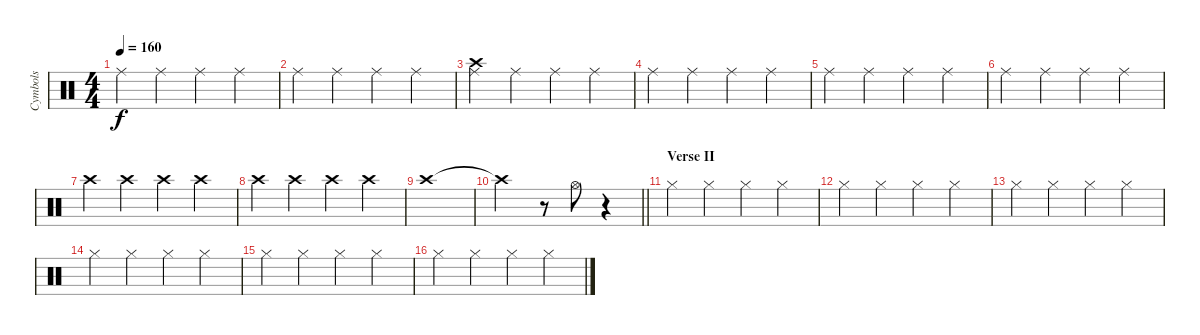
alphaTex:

\track ("Cymbols" "Cymbols") {instrument percussion}
\staff {score}
\articulation defaults
\ts (4 4)
\tempo 160
\clef neutral
\ks c "Ride (middle)".4{dy f} "Ride (middle)".4 "Ride (middle)".4 "Ride (middle)".4
|
"Ride (middle)".4 "Ride (middle)".4 "Ride (middle)".4 "Ride (middle)".4 |
("Crash high (hit)" "Ride (middle)").4 "Ride (middle)".4 "Ride (middle)".4 "Ride (middle)".4 |
"Ride (middle)".4 "Ride (middle)".4 "Ride (middle)".4 "Ride (middle)".4 |
"Ride (middle)".4 "Ride (middle)".4 "Ride (middle)".4 "Ride (middle)".4 |
"Ride (middle)".4 "Ride (middle)".4 "Ride (middle)".4 "Ride (middle)".4 |
"Crash high (hit)".4 "Crash high (hit)".4 "Crash high (hit)".4 "Crash high (hit)".4 |
"Crash high (hit)".4 "Crash high (hit)".4 "Crash high (hit)".4 "Crash high (hit)".4 |
"Crash high (hit)".1 |
\barLineRight lightlight "Crash high (hit)"{t}.2
r.8 "Hi-Hat (open)".8 r.4 |
\section ("" "Verse II")
"Hi-Hat (closed)".4 "Hi-Hat (closed)".4 "Hi-Hat (closed)".4 "Hi-Hat (closed)".4 |
"Hi-Hat (closed)".4 "Hi-Hat (closed)".4 "Hi-Hat (closed)".4 "Hi-Hat (closed)".4 |
"Hi-Hat (closed)".4 "Hi-Hat (closed)".4 "Hi-Hat (closed)".4 "Hi-Hat (closed)".4 |
"Hi-Hat (closed)".4 "Hi-Hat (closed)".4 "Hi-Hat (closed)".4 "Hi-Hat (closed)".4 |
"Hi-Hat (closed)".4 "Hi-Hat (closed)".4 "Hi-Hat (closed)".4 "Hi-Hat (closed)".4 |
"Hi-Hat (closed)".4 "Hi-Hat (closed)".4 "Hi-Hat (closed)".4 "Hi-Hat (closed)".4
